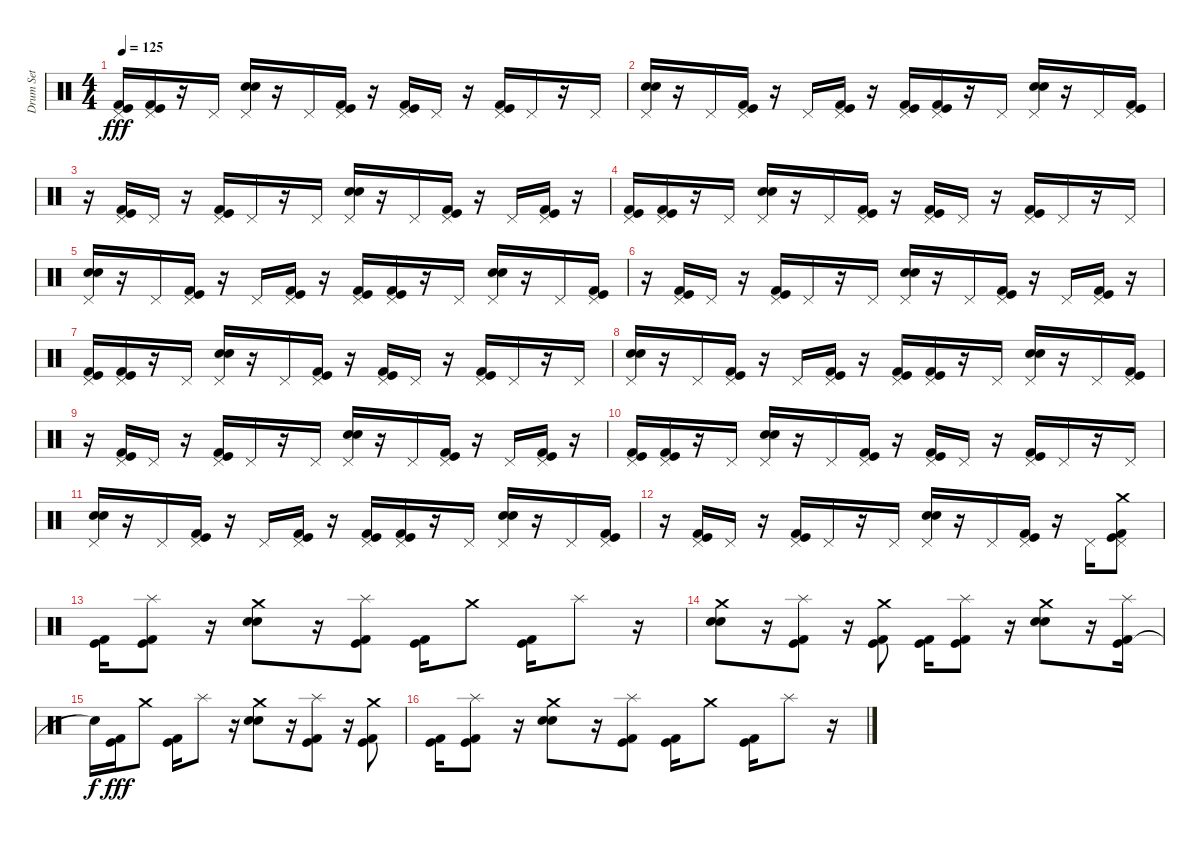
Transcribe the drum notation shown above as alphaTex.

\track ("Drum Set" "Drum Set") {instrument percussion}
\staff {score}
\articulation defaults
\ts (4 4)
\tempo 125
\clef neutral
\ks c
("Kick (hit)" "Kick (hit) 2" "Pedal Hi-Hat (hit)").16{dy fff} ("Kick (hit) 2" "Kick (hit)" "Pedal Hi-Hat (hit)").16 r.16 "Pedal Hi-Hat (hit)".16 ("Electric Snare (hit)" "Snare (hit) 2" "Pedal Hi-Hat (hit)").16 r.16 "Pedal Hi-Hat (hit)".16 ("Kick (hit)" "Kick (hit) 2" "Pedal Hi-Hat (hit)").16 r.16 ("Kick (hit)" "Kick (hit) 2" "Pedal Hi-Hat (hit)").16 "Pedal Hi-Hat (hit)".16 r.16 ("Kick (hit)" "Kick (hit) 2" "Pedal Hi-Hat (hit)").16 "Pedal Hi-Hat (hit)".16 r.16 "Pedal Hi-Hat (hit)".16 |
("Electric Snare (hit)" "Snare (hit) 2" "Pedal Hi-Hat (hit)").16 r.16 "Pedal Hi-Hat (hit)".16 ("Kick (hit)" "Kick (hit) 2" "Pedal Hi-Hat (hit)").16 r.16 "Pedal Hi-Hat (hit)".16 ("Pedal Hi-Hat (hit)" "Kick (hit) 2" "Kick (hit)").16 r.16 ("Kick (hit)" "Kick (hit) 2" "Pedal Hi-Hat (hit)").16 ("Kick (hit) 2" "Kick (hit)" "Pedal Hi-Hat (hit)").16 r.16 "Pedal Hi-Hat (hit)".16 ("Electric Snare (hit)" "Snare (hit) 2" "Pedal Hi-Hat (hit)").16 r.16 "Pedal Hi-Hat (hit)".16 ("Kick (hit)" "Kick (hit) 2" "Pedal Hi-Hat (hit)").16 |
r.16 ("Kick (hit)" "Kick (hit) 2" "Pedal Hi-Hat (hit)").16 "Pedal Hi-Hat (hit)".16 r.16 ("Kick (hit)" "Kick (hit) 2" "Pedal Hi-Hat (hit)").16 "Pedal Hi-Hat (hit)".16 r.16 "Pedal Hi-Hat (hit)".16 ("Electric Snare (hit)" "Snare (hit) 2" "Pedal Hi-Hat (hit)").16 r.16 "Pedal Hi-Hat (hit)".16 ("Kick (hit)" "Kick (hit) 2" "Pedal Hi-Hat (hit)").16 r.16 "Pedal Hi-Hat (hit)".16 ("Pedal Hi-Hat (hit)" "Kick (hit) 2" "Kick (hit)").16 r.16 |
("Kick (hit)" "Kick (hit) 2" "Pedal Hi-Hat (hit)").16 ("Kick (hit) 2" "Kick (hit)" "Pedal Hi-Hat (hit)").16 r.16 "Pedal Hi-Hat (hit)".16 ("Electric Snare (hit)" "Snare (hit) 2" "Pedal Hi-Hat (hit)").16 r.16 "Pedal Hi-Hat (hit)".16 ("Kick (hit)" "Kick (hit) 2" "Pedal Hi-Hat (hit)").16 r.16 ("Kick (hit)" "Kick (hit) 2" "Pedal Hi-Hat (hit)").16 "Pedal Hi-Hat (hit)".16 r.16 ("Kick (hit)" "Kick (hit) 2" "Pedal Hi-Hat (hit)").16 "Pedal Hi-Hat (hit)".16 r.16 "Pedal Hi-Hat (hit)".16 |
("Electric Snare (hit)" "Snare (hit) 2" "Pedal Hi-Hat (hit)").16 r.16 "Pedal Hi-Hat (hit)".16 ("Kick (hit)" "Kick (hit) 2" "Pedal Hi-Hat (hit)").16 r.16 "Pedal Hi-Hat (hit)".16 ("Pedal Hi-Hat (hit)" "Kick (hit) 2" "Kick (hit)").16 r.16 ("Kick (hit)" "Kick (hit) 2" "Pedal Hi-Hat (hit)").16 ("Kick (hit) 2" "Kick (hit)" "Pedal Hi-Hat (hit)").16 r.16 "Pedal Hi-Hat (hit)".16 ("Electric Snare (hit)" "Snare (hit) 2" "Pedal Hi-Hat (hit)").16 r.16 "Pedal Hi-Hat (hit)".16 ("Kick (hit)" "Kick (hit) 2" "Pedal Hi-Hat (hit)").16 |
r.16 ("Kick (hit)" "Kick (hit) 2" "Pedal Hi-Hat (hit)").16 "Pedal Hi-Hat (hit)".16 r.16 ("Kick (hit)" "Kick (hit) 2" "Pedal Hi-Hat (hit)").16 "Pedal Hi-Hat (hit)".16 r.16 "Pedal Hi-Hat (hit)".16 ("Electric Snare (hit)" "Snare (hit) 2" "Pedal Hi-Hat (hit)").16 r.16 "Pedal Hi-Hat (hit)".16 ("Kick (hit)" "Kick (hit) 2" "Pedal Hi-Hat (hit)").16 r.16 "Pedal Hi-Hat (hit)".16 ("Pedal Hi-Hat (hit)" "Kick (hit) 2" "Kick (hit)").16 r.16 |
("Kick (hit)" "Kick (hit) 2" "Pedal Hi-Hat (hit)").16 ("Kick (hit) 2" "Kick (hit)" "Pedal Hi-Hat (hit)").16 r.16 "Pedal Hi-Hat (hit)".16 ("Electric Snare (hit)" "Snare (hit) 2" "Pedal Hi-Hat (hit)").16 r.16 "Pedal Hi-Hat (hit)".16 ("Kick (hit)" "Kick (hit) 2" "Pedal Hi-Hat (hit)").16 r.16 ("Kick (hit)" "Kick (hit) 2" "Pedal Hi-Hat (hit)").16 "Pedal Hi-Hat (hit)".16 r.16 ("Kick (hit)" "Kick (hit) 2" "Pedal Hi-Hat (hit)").16 "Pedal Hi-Hat (hit)".16 r.16 "Pedal Hi-Hat (hit)".16 |
("Electric Snare (hit)" "Snare (hit) 2" "Pedal Hi-Hat (hit)").16 r.16 "Pedal Hi-Hat (hit)".16 ("Kick (hit)" "Kick (hit) 2" "Pedal Hi-Hat (hit)").16 r.16 "Pedal Hi-Hat (hit)".16 ("Pedal Hi-Hat (hit)" "Kick (hit) 2" "Kick (hit)").16 r.16 ("Kick (hit)" "Kick (hit) 2" "Pedal Hi-Hat (hit)").16 ("Kick (hit) 2" "Kick (hit)" "Pedal Hi-Hat (hit)").16 r.16 "Pedal Hi-Hat (hit)".16 ("Electric Snare (hit)" "Snare (hit) 2" "Pedal Hi-Hat (hit)").16 r.16 "Pedal Hi-Hat (hit)".16 ("Kick (hit)" "Kick (hit) 2" "Pedal Hi-Hat (hit)").16 |
r.16 ("Kick (hit)" "Kick (hit) 2" "Pedal Hi-Hat (hit)").16 "Pedal Hi-Hat (hit)".16 r.16 ("Kick (hit)" "Kick (hit) 2" "Pedal Hi-Hat (hit)").16 "Pedal Hi-Hat (hit)".16 r.16 "Pedal Hi-Hat (hit)".16 ("Electric Snare (hit)" "Snare (hit) 2" "Pedal Hi-Hat (hit)").16 r.16 "Pedal Hi-Hat (hit)".16 ("Kick (hit)" "Kick (hit) 2" "Pedal Hi-Hat (hit)").16 r.16 "Pedal Hi-Hat (hit)".16 ("Pedal Hi-Hat (hit)" "Kick (hit) 2" "Kick (hit)").16 r.16 |
("Kick (hit)" "Kick (hit) 2" "Pedal Hi-Hat (hit)").16 ("Kick (hit) 2" "Kick (hit)" "Pedal Hi-Hat (hit)").16 r.16 "Pedal Hi-Hat (hit)".16 ("Electric Snare (hit)" "Snare (hit) 2" "Pedal Hi-Hat (hit)").16 r.16 "Pedal Hi-Hat (hit)".16 ("Kick (hit)" "Kick (hit) 2" "Pedal Hi-Hat (hit)").16 r.16 ("Kick (hit)" "Kick (hit) 2" "Pedal Hi-Hat (hit)").16 "Pedal Hi-Hat (hit)".16 r.16 ("Kick (hit)" "Kick (hit) 2" "Pedal Hi-Hat (hit)").16 "Pedal Hi-Hat (hit)".16 r.16 "Pedal Hi-Hat (hit)".16 |
("Electric Snare (hit)" "Snare (hit) 2" "Pedal Hi-Hat (hit)").16 r.16 "Pedal Hi-Hat (hit)".16 ("Kick (hit)" "Kick (hit) 2" "Pedal Hi-Hat (hit)").16 r.16 "Pedal Hi-Hat (hit)".16 ("Pedal Hi-Hat (hit)" "Kick (hit) 2" "Kick (hit)").16 r.16 ("Kick (hit)" "Kick (hit) 2" "Pedal Hi-Hat (hit)").16 ("Kick (hit) 2" "Kick (hit)" "Pedal Hi-Hat (hit)").16 r.16 "Pedal Hi-Hat (hit)".16 ("Electric Snare (hit)" "Snare (hit) 2" "Pedal Hi-Hat (hit)").16 r.16 "Pedal Hi-Hat (hit)".16 ("Kick (hit)" "Kick (hit) 2" "Pedal Hi-Hat (hit)").16 |
r.16 ("Kick (hit)" "Kick (hit) 2" "Pedal Hi-Hat (hit)").16 "Pedal Hi-Hat (hit)".16 r.16 ("Pedal Hi-Hat (hit)" "Kick (hit)" "Kick (hit) 2").16 "Pedal Hi-Hat (hit)".16 r.16 "Pedal Hi-Hat (hit)".16 ("Pedal Hi-Hat (hit)" "Electric Snare (hit)" "Snare (hit) 2").16 r.16 "Pedal Hi-Hat (hit)".16 ("Pedal Hi-Hat (hit)" "Kick (hit)" "Kick (hit) 2").16 r.16 "Pedal Hi-Hat (hit)".16 ("Pedal Hi-Hat (hit)" "Kick (hit) 2" "Kick (hit)" "Crash medium (hit)").8 |
("Kick (hit)" "Kick (hit) 2").16 ("Kick (hit) 2" "Kick (hit)" "Splash (hit)").8 r.16 ("Electric Snare (hit)" "Snare (hit) 2" "Crash medium (hit)").8 r.16 ("Kick (hit)" "Kick (hit) 2" "Splash (hit)").8 ("Kick (hit)" "Kick (hit) 2").16 "Crash medium (hit)".8 ("Kick (hit)" "Kick (hit) 2").16 "Splash (hit)".8 r.16 |
("Electric Snare (hit)" "Snare (hit) 2" "Crash medium (hit)").8 r.16 ("Kick (hit)" "Kick (hit) 2" "Splash (hit)").8 r.16 ("Kick (hit) 2" "Kick (hit)" "Crash medium (hit)").8 ("Kick (hit)" "Kick (hit) 2").16 ("Kick (hit) 2" "Kick (hit)" "Splash (hit)").8 r.16 ("Electric Snare (hit)" "Snare (hit) 2" "Crash medium (hit)").8 r.16 ("Kick (hit)" "Kick (hit) 2" "Splash (hit)").16 |
"Snare (hit)"{t}.16{dy f} ("Kick (hit)" "Kick (hit) 2").16{dy fff} "Crash medium (hit)".8 ("Kick (hit)" "Kick (hit) 2").16 "Splash (hit)".8 r.16 ("Electric Snare (hit)" "Snare (hit) 2" "Crash medium (hit)").8 r.16 ("Kick (hit)" "Kick (hit) 2" "Splash (hit)").8 r.16 ("Kick (hit) 2" "Kick (hit)" "Crash medium (hit)").8 |
("Kick (hit)" "Kick (hit) 2").16 ("Kick (hit) 2" "Kick (hit)" "Splash (hit)").8 r.16 ("Electric Snare (hit)" "Snare (hit) 2" "Crash medium (hit)").8 r.16 ("Kick (hit)" "Kick (hit) 2" "Splash (hit)").8 ("Kick (hit)" "Kick (hit) 2").16 "Crash medium (hit)".8 ("Kick (hit)" "Kick (hit) 2").16 "Splash (hit)".8 r.16
